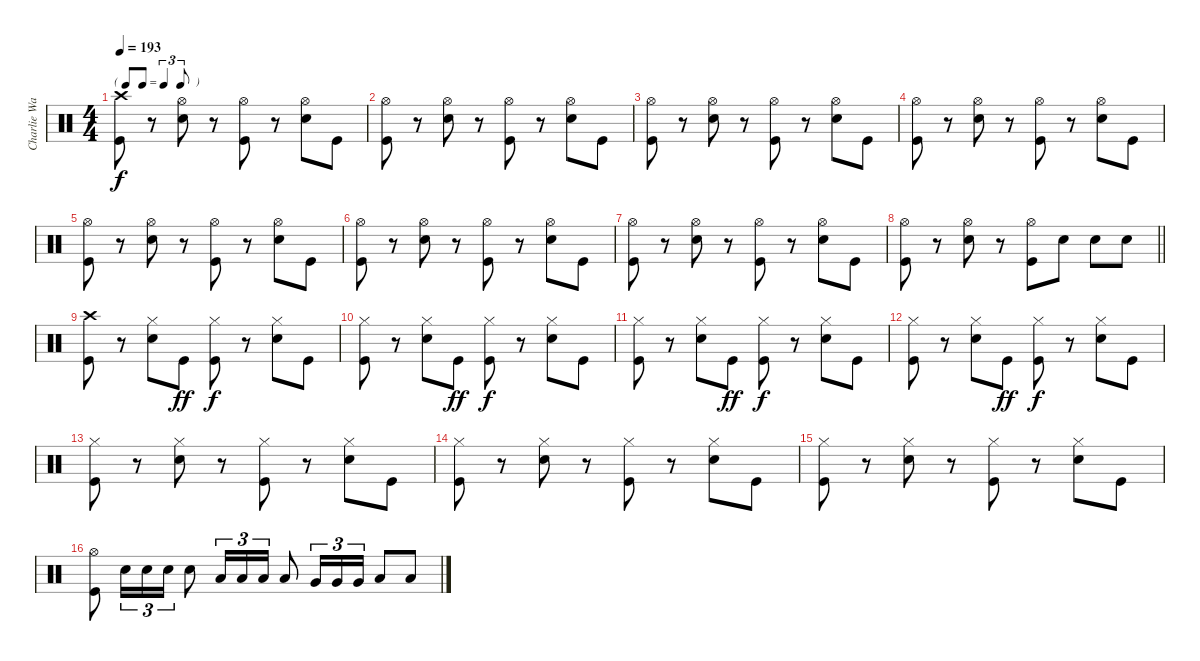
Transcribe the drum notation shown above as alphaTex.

\track ("Charlie Watts" "Charlie Wa") {instrument percussion}
\staff {score}
\articulation defaults
\ts (4 4)
\tf triplet8th
\tempo 193
\clef neutral
\ks c
("Crash high (hit)" "Kick (hit)").8{dy f} r.8 ("Hi-Hat (open)" "Snare (hit) 2").8 r.8 ("Hi-Hat (open)" "Kick (hit)").8 r.8 ("Hi-Hat (open)" "Snare (hit) 2").8 "Kick (hit)".8 |
("Hi-Hat (open)" "Kick (hit)").8 r.8 ("Hi-Hat (open)" "Snare (hit) 2").8 r.8 ("Hi-Hat (open)" "Kick (hit)").8 r.8 ("Hi-Hat (open)" "Snare (hit) 2").8 "Kick (hit)".8 |
("Hi-Hat (open)" "Kick (hit)").8 r.8 ("Hi-Hat (open)" "Snare (hit) 2").8 r.8 ("Hi-Hat (open)" "Kick (hit)").8 r.8 ("Hi-Hat (open)" "Snare (hit) 2").8 "Kick (hit)".8 |
("Hi-Hat (open)" "Kick (hit)").8 r.8 ("Hi-Hat (open)" "Snare (hit) 2").8 r.8 ("Hi-Hat (open)" "Kick (hit)").8 r.8 ("Hi-Hat (open)" "Snare (hit) 2").8 "Kick (hit)".8 |
("Hi-Hat (open)" "Kick (hit)").8 r.8 ("Hi-Hat (open)" "Snare (hit) 2").8 r.8 ("Hi-Hat (open)" "Kick (hit)").8 r.8 ("Hi-Hat (open)" "Snare (hit) 2").8 "Kick (hit)".8 |
("Hi-Hat (open)" "Kick (hit)").8 r.8 ("Hi-Hat (open)" "Snare (hit) 2").8 r.8 ("Hi-Hat (open)" "Kick (hit)").8 r.8 ("Hi-Hat (open)" "Snare (hit) 2").8 "Kick (hit)".8 |
("Hi-Hat (open)" "Kick (hit)").8 r.8 ("Hi-Hat (open)" "Snare (hit) 2").8 r.8 ("Hi-Hat (open)" "Kick (hit)").8 r.8 ("Hi-Hat (open)" "Snare (hit) 2").8 "Kick (hit)".8 |
\barLineRight lightlight
("Hi-Hat (open)" "Kick (hit)").8 r.8 ("Hi-Hat (open)" "Snare (hit) 2").8 r.8 ("Hi-Hat (open)" "Kick (hit)").8 "Snare (hit) 2".8 "Snare (hit) 2".8 "Snare (hit) 2".8 |
("Crash high (hit)" "Kick (hit)").8 r.8 ("Hi-Hat (closed)" "Snare (hit) 2").8 "Kick (hit)".8{dy ff} ("Hi-Hat (closed)" "Kick (hit)").8{dy f} r.8 ("Hi-Hat (closed)" "Snare (hit) 2").8 "Kick (hit)".8 |
("Hi-Hat (closed)" "Kick (hit)").8 r.8 ("Hi-Hat (closed)" "Snare (hit) 2").8 "Kick (hit)".8{dy ff} ("Hi-Hat (closed)" "Kick (hit)").8{dy f} r.8 ("Hi-Hat (closed)" "Snare (hit) 2").8 "Kick (hit)".8 |
("Hi-Hat (closed)" "Kick (hit)").8 r.8 ("Hi-Hat (closed)" "Snare (hit) 2").8 "Kick (hit)".8{dy ff} ("Hi-Hat (closed)" "Kick (hit)").8{dy f} r.8 ("Hi-Hat (closed)" "Snare (hit) 2").8 "Kick (hit)".8 |
("Hi-Hat (closed)" "Kick (hit)").8 r.8 ("Hi-Hat (closed)" "Snare (hit) 2").8 "Kick (hit)".8{dy ff} ("Hi-Hat (closed)" "Kick (hit)").8{dy f} r.8 ("Hi-Hat (closed)" "Snare (hit) 2").8 "Kick (hit)".8 |
("Hi-Hat (closed)" "Kick (hit)").8 r.8 ("Hi-Hat (closed)" "Snare (hit) 2").8 r.8 ("Hi-Hat (closed)" "Kick (hit)").8 r.8 ("Hi-Hat (closed)" "Snare (hit) 2").8 "Kick (hit)".8 |
("Hi-Hat (closed)" "Kick (hit)").8 r.8 ("Hi-Hat (closed)" "Snare (hit) 2").8 r.8 ("Hi-Hat (closed)" "Kick (hit)").8 r.8 ("Hi-Hat (closed)" "Snare (hit) 2").8 "Kick (hit)".8 |
("Hi-Hat (closed)" "Kick (hit)").8 r.8 ("Hi-Hat (closed)" "Snare (hit) 2").8 r.8 ("Hi-Hat (closed)" "Kick (hit)").8 r.8 ("Hi-Hat (closed)" "Snare (hit) 2").8 "Kick (hit)".8 |
("Hi-Hat (open)" "Kick (hit)").8 "Snare (hit) 2".16{tu (3 2)} "Snare (hit) 2".16{tu (3 2)} "Snare (hit) 2".16{tu (3 2)} "Snare (hit) 2".8 "Low Tom (hit)".16{tu (3 2)} "Low Tom (hit)".16{tu (3 2)} "Low Tom (hit)".16{tu (3 2)} "Low Tom (hit)".8 "Very Low Tom (hit)".16{tu (3 2)} "Very Low Tom (hit)".16{tu (3 2)} "Very Low Tom (hit)".16{tu (3 2)} "Low Floor Tom (hit)".8 "Low Floor Tom (hit)".8
